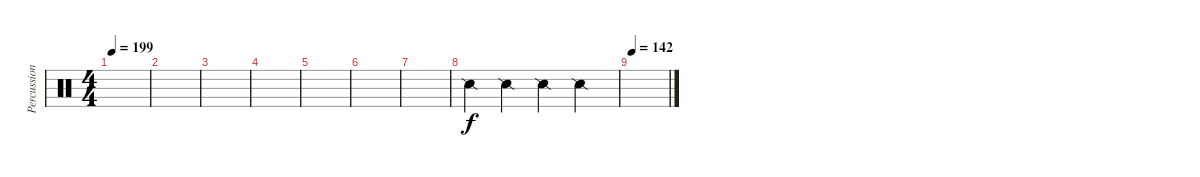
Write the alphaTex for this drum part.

\track ("Percussion" "Percussion") {instrument percussion}
\staff {score}
\articulation defaults
\ts (4 4)
\tempo 199
\clef neutral
\ks c
|
|
|
|
|
|
|
"Snare (side stick) 2".4 "Snare (side stick) 2".4 "Snare (side stick) 2".4 "Snare (side stick) 2".4 |
\tempo 142
